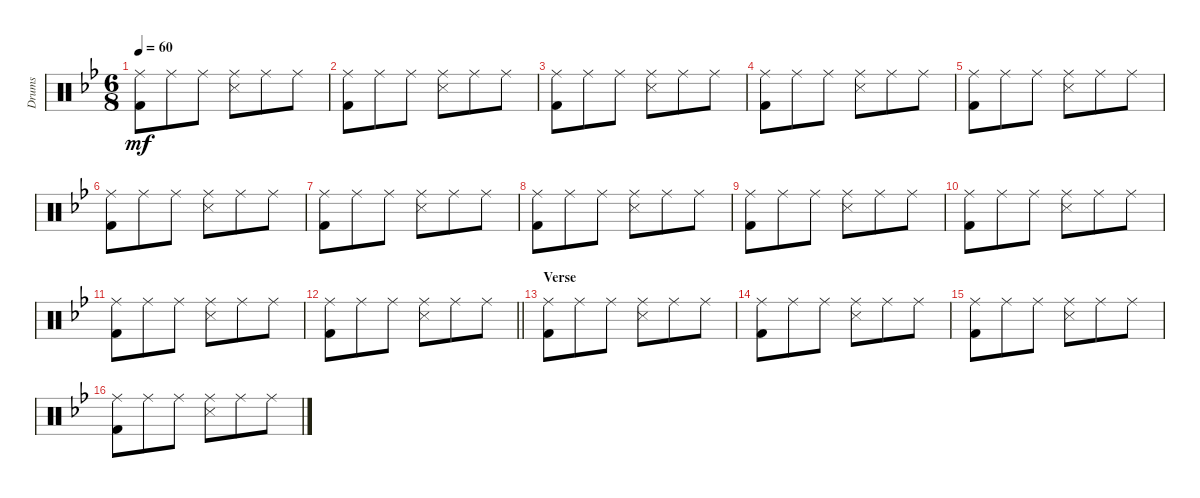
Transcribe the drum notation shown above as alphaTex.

\track ("Drums" "Drums") {instrument percussion}
\staff {score}
\articulation defaults
\ts (6 8)
\tempo 60
\clef neutral
\ks bb
("Ride (middle)" "Kick (hit) 2").8{dy mf} "Ride (middle)".8 "Ride (middle)".8 ("Ride (middle)" "Snare (side stick) 3").8 "Ride (middle)".8 "Ride (middle)".8 |
("Ride (middle)" "Kick (hit) 2").8 "Ride (middle)".8 "Ride (middle)".8 ("Ride (middle)" "Snare (side stick) 3").8 "Ride (middle)".8 "Ride (middle)".8 |
("Ride (middle)" "Kick (hit) 2").8 "Ride (middle)".8 "Ride (middle)".8 ("Ride (middle)" "Snare (side stick) 3").8 "Ride (middle)".8 "Ride (middle)".8 |
("Ride (middle)" "Kick (hit) 2").8 "Ride (middle)".8 "Ride (middle)".8 ("Ride (middle)" "Snare (side stick) 3").8 "Ride (middle)".8 "Ride (middle)".8 |
("Ride (middle)" "Kick (hit) 2").8 "Ride (middle)".8 "Ride (middle)".8 ("Ride (middle)" "Snare (side stick) 3").8 "Ride (middle)".8 "Ride (middle)".8 |
("Ride (middle)" "Kick (hit) 2").8 "Ride (middle)".8 "Ride (middle)".8 ("Ride (middle)" "Snare (side stick) 3").8 "Ride (middle)".8 "Ride (middle)".8 |
("Ride (middle)" "Kick (hit) 2").8 "Ride (middle)".8 "Ride (middle)".8 ("Ride (middle)" "Snare (side stick) 3").8 "Ride (middle)".8 "Ride (middle)".8 |
("Ride (middle)" "Kick (hit) 2").8 "Ride (middle)".8 "Ride (middle)".8 ("Ride (middle)" "Snare (side stick) 3").8 "Ride (middle)".8 "Ride (middle)".8 |
("Ride (middle)" "Kick (hit) 2").8 "Ride (middle)".8 "Ride (middle)".8 ("Ride (middle)" "Snare (side stick) 3").8 "Ride (middle)".8 "Ride (middle)".8 |
("Ride (middle)" "Kick (hit) 2").8 "Ride (middle)".8 "Ride (middle)".8 ("Ride (middle)" "Snare (side stick) 3").8 "Ride (middle)".8 "Ride (middle)".8 |
("Ride (middle)" "Kick (hit) 2").8 "Ride (middle)".8 "Ride (middle)".8 ("Ride (middle)" "Snare (side stick) 3").8 "Ride (middle)".8 "Ride (middle)".8 |
\barLineRight lightlight
("Ride (middle)" "Kick (hit) 2").8 "Ride (middle)".8 "Ride (middle)".8 ("Ride (middle)" "Snare (side stick) 3").8 "Ride (middle)".8 "Ride (middle)".8 |
\section ("" "Verse")
("Ride (middle)" "Kick (hit) 2").8 "Ride (middle)".8 "Ride (middle)".8 ("Ride (middle)" "Snare (side stick) 3").8 "Ride (middle)".8 "Ride (middle)".8 |
("Ride (middle)" "Kick (hit) 2").8 "Ride (middle)".8 "Ride (middle)".8 ("Ride (middle)" "Snare (side stick) 3").8 "Ride (middle)".8 "Ride (middle)".8 |
("Ride (middle)" "Kick (hit) 2").8 "Ride (middle)".8 "Ride (middle)".8 ("Ride (middle)" "Snare (side stick) 3").8 "Ride (middle)".8 "Ride (middle)".8 |
("Ride (middle)" "Kick (hit) 2").8 "Ride (middle)".8 "Ride (middle)".8 ("Ride (middle)" "Snare (side stick) 3").8 "Ride (middle)".8 "Ride (middle)".8
